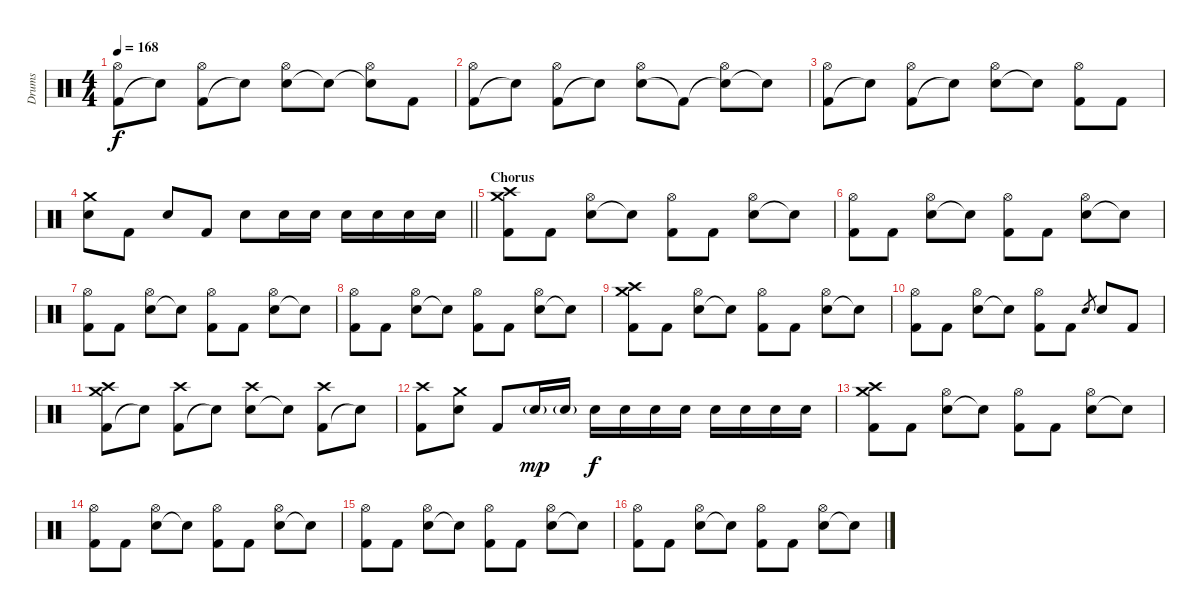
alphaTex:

\track ("Drums" "Drums") {instrument percussion}
\staff {score}
\articulation defaults
\ts (4 4)
\tempo 168
\clef neutral
\ks c
("Kick (hit) 2" "Hi-Hat (open)").8{dy f} "Snare (hit)"{t}.8 ("Kick (hit) 2" "Hi-Hat (open)").8 "Snare (hit)"{t}.8 ("Electric Snare (hit)" "Hi-Hat (open)").8 "Snare (hit)"{t}.8 ("Snare (hit)"{t} "Hi-Hat (open)").8 "Kick (hit) 2".8 |
("Kick (hit) 2" "Hi-Hat (open)").8 "Snare (hit)"{t}.8 ("Kick (hit) 2" "Hi-Hat (open)").8 "Snare (hit)"{t}.8 ("Electric Snare (hit)" "Hi-Hat (open)").8 "Kick (hit) 2"{t}.8 ("Snare (hit)"{t} "Hi-Hat (open)").8 "Snare (hit)"{t}.8 |
("Kick (hit) 2" "Hi-Hat (open)").8 "Snare (hit)"{t}.8 ("Kick (hit) 2" "Hi-Hat (open)").8 "Snare (hit)"{t}.8 ("Electric Snare (hit)" "Hi-Hat (open)").8 "Snare (hit)"{t}.8 ("Kick (hit) 2" "Hi-Hat (open)").8 "Kick (hit) 2".8 |
\barLineRight lightlight
("Electric Snare (hit)" "Crash medium (hit)").8 "Kick (hit) 2".8 "Electric Snare (hit)".8 "Kick (hit) 2".8 "Electric Snare (hit)".8 "Electric Snare (hit)".16 "Electric Snare (hit)".16 "Electric Snare (hit)".16 "Electric Snare (hit)".16 "Electric Snare (hit)".16 "Electric Snare (hit)".16 |
\section ("" "Chorus")
("Kick (hit) 2" "Crash medium (hit)" "Crash high (hit)").8 "Kick (hit) 2".8 ("Electric Snare (hit)" "Hi-Hat (open)").8 "Snare (hit)"{t}.8 ("Kick (hit) 2" "Hi-Hat (open)").8 "Kick (hit) 2".8 ("Electric Snare (hit)" "Hi-Hat (open)").8 "Snare (hit)"{t}.8 |
("Kick (hit) 2" "Hi-Hat (open)").8 "Kick (hit) 2".8 ("Electric Snare (hit)" "Hi-Hat (open)").8 "Snare (hit)"{t}.8 ("Kick (hit) 2" "Hi-Hat (open)").8 "Kick (hit) 2".8 ("Electric Snare (hit)" "Hi-Hat (open)").8 "Snare (hit)"{t}.8 |
("Kick (hit) 2" "Hi-Hat (open)").8 "Kick (hit) 2".8 ("Electric Snare (hit)" "Hi-Hat (open)").8 "Snare (hit)"{t}.8 ("Kick (hit) 2" "Hi-Hat (open)").8 "Kick (hit) 2".8 ("Electric Snare (hit)" "Hi-Hat (open)").8 "Snare (hit)"{t}.8 |
("Kick (hit) 2" "Hi-Hat (open)").8 "Kick (hit) 2".8 ("Electric Snare (hit)" "Hi-Hat (open)").8 "Snare (hit)"{t}.8 ("Kick (hit) 2" "Hi-Hat (open)").8 "Kick (hit) 2".8 ("Electric Snare (hit)" "Hi-Hat (open)").8 "Snare (hit)"{t}.8 |
("Kick (hit) 2" "Crash medium (hit)" "Crash high (hit)").8 "Kick (hit) 2".8 ("Electric Snare (hit)" "Hi-Hat (open)").8 "Snare (hit)"{t}.8 ("Kick (hit) 2" "Hi-Hat (open)").8 "Kick (hit) 2".8 ("Electric Snare (hit)" "Hi-Hat (open)").8 "Snare (hit)"{t}.8 |
("Kick (hit) 2" "Hi-Hat (open)").8 "Kick (hit) 2".8 ("Electric Snare (hit)" "Hi-Hat (open)").8 "Snare (hit)"{t}.8 ("Kick (hit) 2" "Hi-Hat (open)").8 "Kick (hit) 2".8 "Electric Snare (hit)".8{gr} "Electric Snare (hit)".8 "Kick (hit) 2".8 |
("Kick (hit) 2" "Crash medium (hit)" "Crash high (hit)").8 "Snare (hit)"{t}.8 ("Kick (hit) 2" "Crash high (hit)").8 "Snare (hit)"{t}.8 ("Electric Snare (hit)" "Crash high (hit)").8 "Snare (hit)"{t}.8 ("Kick (hit) 2" "Crash high (hit)").8 "Snare (hit)"{t}.8 |
("Kick (hit) 2" "Crash high (hit)").8 ("Electric Snare (hit)" "Crash medium (hit)").8 "Kick (hit) 2".8 "Electric Snare (hit)"{g}.16{dy mp} "Electric Snare (hit)"{g}.16 "Electric Snare (hit)".16{dy f} "Electric Snare (hit)".16 "Electric Snare (hit)".16 "Electric Snare (hit)".16 "Electric Snare (hit)".16 "Electric Snare (hit)".16 "Electric Snare (hit)".16 "Electric Snare (hit)".16 |
("Kick (hit) 2" "Crash medium (hit)" "Crash high (hit)").8 "Kick (hit) 2".8 ("Electric Snare (hit)" "Hi-Hat (open)").8 "Snare (hit)"{t}.8 ("Kick (hit) 2" "Hi-Hat (open)").8 "Kick (hit) 2".8 ("Electric Snare (hit)" "Hi-Hat (open)").8 "Snare (hit)"{t}.8 |
("Kick (hit) 2" "Hi-Hat (open)").8 "Kick (hit) 2".8 ("Electric Snare (hit)" "Hi-Hat (open)").8 "Snare (hit)"{t}.8 ("Kick (hit) 2" "Hi-Hat (open)").8 "Kick (hit) 2".8 ("Electric Snare (hit)" "Hi-Hat (open)").8 "Snare (hit)"{t}.8 |
("Kick (hit) 2" "Hi-Hat (open)").8 "Kick (hit) 2".8 ("Electric Snare (hit)" "Hi-Hat (open)").8 "Snare (hit)"{t}.8 ("Kick (hit) 2" "Hi-Hat (open)").8 "Kick (hit) 2".8 ("Electric Snare (hit)" "Hi-Hat (open)").8 "Snare (hit)"{t}.8 |
("Kick (hit) 2" "Hi-Hat (open)").8 "Kick (hit) 2".8 ("Electric Snare (hit)" "Hi-Hat (open)").8 "Snare (hit)"{t}.8 ("Kick (hit) 2" "Hi-Hat (open)").8 "Kick (hit) 2".8 ("Electric Snare (hit)" "Hi-Hat (open)").8 "Snare (hit)"{t}.8
